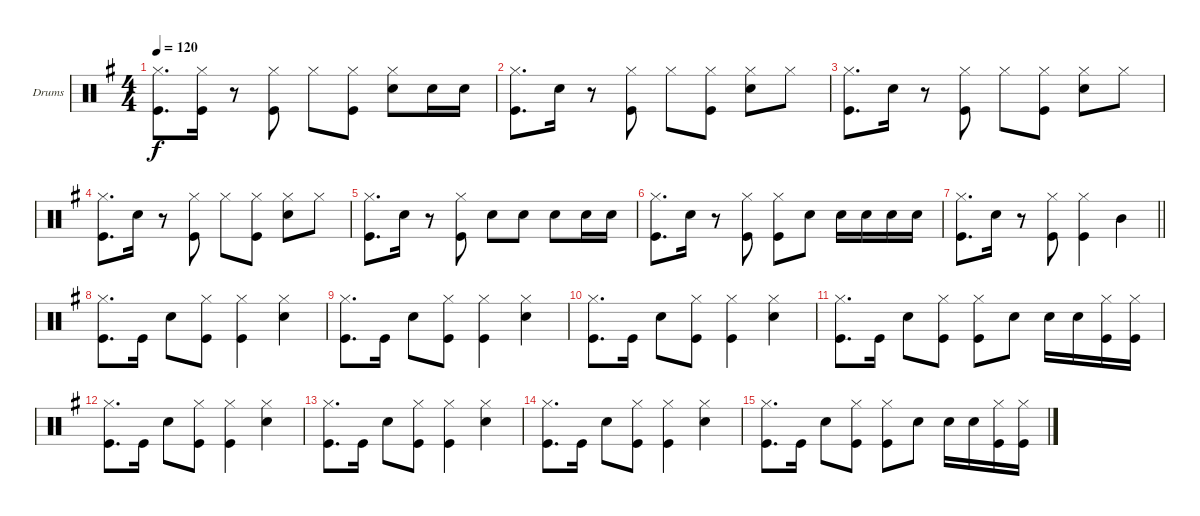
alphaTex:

\bracketExtendMode groupsimilarinstruments
\firstSystemTrackNameOrientation horizontal
\otherSystemsTrackNameOrientation horizontal
\track ("Drumkit" "Drums") {instrument percussion}
\staff {score}
\articulation defaults
\ts (4 4)
\tempo 120
\clef neutral
\ks eminor
("Hi-Hat (closed)" "Kick (hit)").8{d dy f} ("Hi-Hat (closed)" "Kick (hit)").16 r.8 ("Hi-Hat (closed)" "Kick (hit)").8 "Hi-Hat (closed)".8 ("Hi-Hat (closed)" "Kick (hit)").8 ("Hi-Hat (closed)" "Snare (hit) 2").8 "Snare (hit) 2".16 "Snare (hit) 2".16 |
("Hi-Hat (closed)" "Kick (hit)").8{d} "Snare (hit) 2".16 r.8 ("Hi-Hat (closed)" "Kick (hit)").8 "Hi-Hat (closed)".8 ("Hi-Hat (closed)" "Kick (hit)").8 ("Hi-Hat (closed)" "Snare (hit) 2").8 "Hi-Hat (closed)".8 |
("Hi-Hat (closed)" "Kick (hit)").8{d} "Snare (hit) 2".16 r.8 ("Hi-Hat (closed)" "Kick (hit)").8 "Hi-Hat (closed)".8 ("Hi-Hat (closed)" "Kick (hit)").8 ("Hi-Hat (closed)" "Snare (hit) 2").8 "Hi-Hat (closed)".8 |
("Hi-Hat (closed)" "Kick (hit)").8{d} "Snare (hit) 2".16 r.8 ("Hi-Hat (closed)" "Kick (hit)").8 "Hi-Hat (closed)".8 ("Hi-Hat (closed)" "Kick (hit)").8 ("Hi-Hat (closed)" "Snare (hit) 2").8 "Hi-Hat (closed)".8 |
("Hi-Hat (closed)" "Kick (hit)").8{d} "Snare (hit) 2".16 r.8 ("Hi-Hat (closed)" "Kick (hit)").8 "Snare (hit) 2".8 "Snare (hit) 2".8 "Snare (hit) 2".8 "Snare (hit) 2".16 "Snare (hit) 2".16 |
("Hi-Hat (closed)" "Kick (hit)").8{d} "Snare (hit) 2".16 r.8 ("Hi-Hat (closed)" "Kick (hit)").8 ("Hi-Hat (closed)" "Kick (hit)").8 "Snare (hit) 2".8 "Snare (hit) 2".16 "Snare (hit) 2".16 "Snare (hit) 2".16 "Snare (hit) 2".16 |
\barLineRight lightlight
("Hi-Hat (closed)" "Kick (hit)").8{d} "Snare (hit) 2".16 r.8 ("Hi-Hat (closed)" "Kick (hit)").8 ("Hi-Hat (closed)" "Kick (hit)").4 "Mid Tom (hit)".4 |
("Hi-Hat (closed)" "Kick (hit)").8{d} "Kick (hit)".16 "Snare (hit) 2".8 ("Hi-Hat (closed)" "Kick (hit)").8 ("Hi-Hat (closed)" "Kick (hit)").4 ("Hi-Hat (closed)" "Snare (hit) 2").4 |
("Hi-Hat (closed)" "Kick (hit)").8{d} "Kick (hit)".16 "Snare (hit) 2".8 ("Hi-Hat (closed)" "Kick (hit)").8 ("Hi-Hat (closed)" "Kick (hit)").4 ("Hi-Hat (closed)" "Snare (hit) 2").4 |
("Hi-Hat (closed)" "Kick (hit)").8{d} "Kick (hit)".16 "Snare (hit) 2".8 ("Hi-Hat (closed)" "Kick (hit)").8 ("Hi-Hat (closed)" "Kick (hit)").4 ("Hi-Hat (closed)" "Snare (hit) 2").4 |
("Hi-Hat (closed)" "Kick (hit)").8{d} "Kick (hit)".16 "Snare (hit) 2".8 ("Hi-Hat (closed)" "Kick (hit)").8 ("Hi-Hat (closed)" "Kick (hit)").8 "Snare (hit) 2".8 "Snare (hit) 2".16 "Snare (hit) 2".16 ("Hi-Hat (closed)" "Kick (hit)").16 ("Hi-Hat (closed)" "Kick (hit)").16 |
("Hi-Hat (closed)" "Kick (hit)").8{d} "Kick (hit)".16 "Snare (hit) 2".8 ("Hi-Hat (closed)" "Kick (hit)").8 ("Hi-Hat (closed)" "Kick (hit)").4 ("Hi-Hat (closed)" "Snare (hit) 2").4 |
("Hi-Hat (closed)" "Kick (hit)").8{d} "Kick (hit)".16 "Snare (hit) 2".8 ("Hi-Hat (closed)" "Kick (hit)").8 ("Hi-Hat (closed)" "Kick (hit)").4 ("Hi-Hat (closed)" "Snare (hit) 2").4 |
("Hi-Hat (closed)" "Kick (hit)").8{d} "Kick (hit)".16 "Snare (hit) 2".8 ("Hi-Hat (closed)" "Kick (hit)").8 ("Hi-Hat (closed)" "Kick (hit)").4 ("Hi-Hat (closed)" "Snare (hit) 2").4 |
("Hi-Hat (closed)" "Kick (hit)").8{d} "Kick (hit)".16 "Snare (hit) 2".8 ("Hi-Hat (closed)" "Kick (hit)").8 ("Hi-Hat (closed)" "Kick (hit)").8 "Snare (hit) 2".8 "Snare (hit) 2".16 "Snare (hit) 2".16 ("Hi-Hat (closed)" "Kick (hit)").16 ("Hi-Hat (closed)" "Kick (hit)").16
